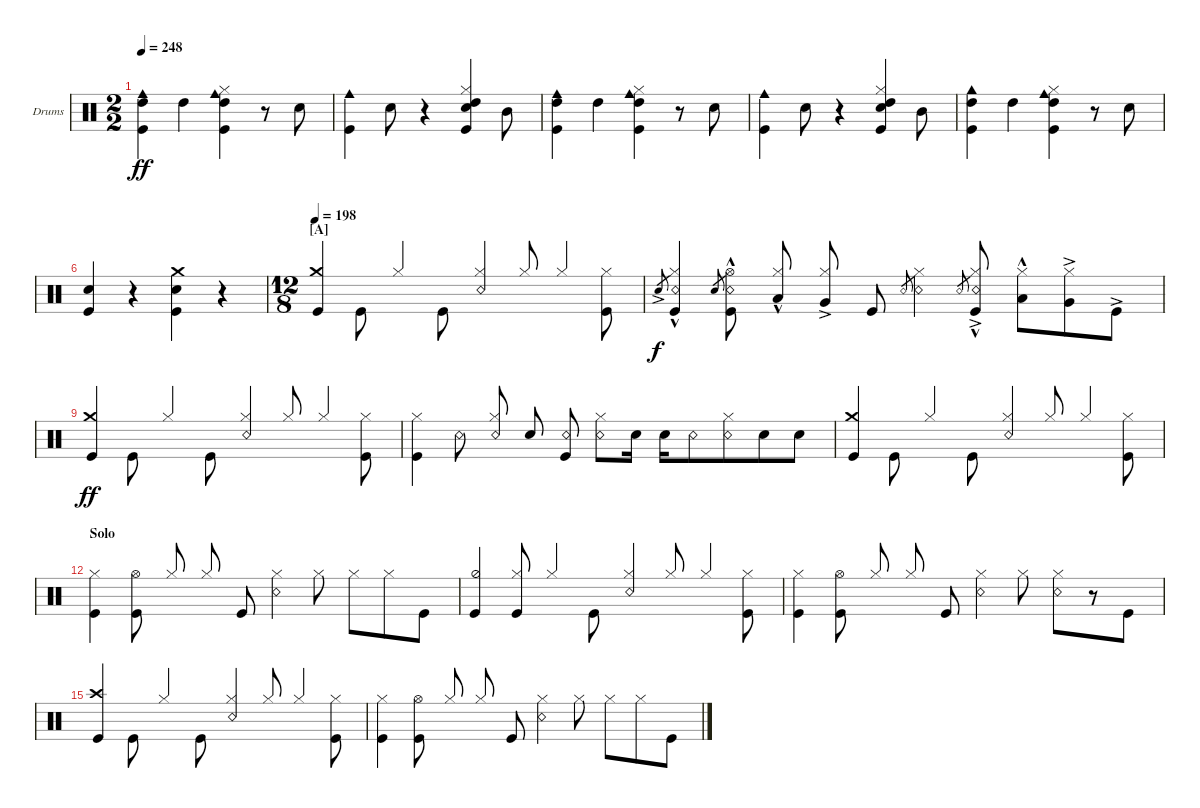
\bracketExtendMode nobrackets
\firstSystemTrackNameOrientation horizontal
\otherSystemsTrackNameOrientation horizontal
\defaultBarNumberDisplay FirstOfSystem
\track ("Drumkit" "Drums") {instrument percussion}
\staff {score}
\articulation defaults
\ts (2 2)
\tempo 248
\clef neutral
\ks c
("Cowbell medium (hit)" "Kick (hit)" "High Tom (hit)").4{dy ff} "High Tom (hit)".4 ("Kick (hit)" "High Tom (hit)" "Cowbell medium (hit)" "Hi-Hat (closed)").4 r.8 "Snare (hit) 2".8 |
("Kick (hit)" "Cowbell medium (hit)").4 "Snare (hit) 2".8 r.4 ("Kick (hit)" "Snare (hit) 2" "High Tom (hit)" "Hi-Hat (closed)").4 "Mid Tom (hit)".8 |
("Cowbell medium (hit)" "Kick (hit)" "High Tom (hit)").4 "High Tom (hit)".4 ("Kick (hit)" "High Tom (hit)" "Cowbell medium (hit)" "Hi-Hat (closed)").4 r.8 "Snare (hit) 2".8 |
("Kick (hit)" "Cowbell medium (hit)").4 "Snare (hit) 2".8 r.4 ("Kick (hit)" "Snare (hit) 2" "High Tom (hit)" "Hi-Hat (closed)").4 "Mid Tom (hit)".8 |
("Kick (hit)" "High Tom (hit)" "Cowbell high (hit)").4 "High Tom (hit)".4 ("Kick (hit)" "High Tom (hit)" "Hi-Hat (closed)" "Cowbell medium (hit)").4 r.8 "Snare (hit) 2".8 |
("Kick (hit)" "Snare (hit) 2").4 r.4 ("Kick (hit)" "Snare (hit) 2" "Crash medium (hit)").4 r.4 |
\ts (12 8)
\beaming (8 2 2 2 6)
\section ("A" "")
\tempo 198
("Kick (hit)" "Crash medium (hit)").4{beam invert} "Kick (hit)".8{beam invert} "Hi-Hat (closed)".4 "Kick (hit)".8{beam invert} ("Snare (rim shot)" "Hi-Hat (closed)").4 "Hi-Hat (closed)".8{beam invert} "Hi-Hat (closed)".4{beam invert} ("Kick (hit)" "Hi-Hat (closed)").8 |
"Snare (hit) 2"{ac}.8{gr dy f} ("Kick (hit)"{hac} "Hi-Hat (closed)" "Snare (rim shot)"{hac}).4 "Snare (hit) 2".8{gr} ("Kick (hit)" "Snare (rim shot)"{hac} "Hi-Hat (open)"{hac}).8{beam split} ("Hi-Hat (closed)" "Low Tom (hit)"{hac}).8 ("Hi-Hat (closed)" "Very Low Tom (hit)"{ac}).8{beam invert beam split} "Kick (hit)".8 "Snare (rim shot)".8{gr} ("Snare (rim shot)" "Hi-Hat (closed)").4 "Snare (rim shot)".8{gr} ("Hi-Hat (closed)" "Kick (hit)"{ac} "Snare (rim shot)"{hac}).8{beam split} ("Hi-Hat (closed)" "Low Tom (hit)"{hac}).8 ("Hi-Hat (closed)" "Very Low Tom (hit)"{ac}).8 "Kick (hit)"{ac}.8 |
("Kick (hit)" "Crash medium (hit)").4{dy ff beam invert} "Kick (hit)".8{beam invert} "Hi-Hat (closed)".4 "Kick (hit)".8{beam invert} ("Snare (rim shot)" "Hi-Hat (closed)").4 "Hi-Hat (closed)".8{beam invert} "Hi-Hat (closed)".4{beam invert} ("Kick (hit)" "Hi-Hat (closed)").8 |
("Kick (hit)" "Hi-Hat (closed)").4 "Snare (rim shot)".8{beam split} ("Hi-Hat (closed)" "Snare (rim shot)").8 "Snare (hit) 2".8{beam invert beam split} ("Kick (hit)" "Snare (rim shot)").8 ("Snare (rim shot)" "Hi-Hat (closed)").8 "Snare (hit) 2".16{beam split} "Snare (hit) 2".16 "Snare (rim shot)".8 ("Snare (rim shot)" "Hi-Hat (closed)").8 "Snare (hit) 2".8 "Snare (hit) 2".8 |
("Kick (hit)" "Crash medium (hit)").4{beam invert} "Kick (hit)".8{beam invert} "Hi-Hat (closed)".4 "Kick (hit)".8{beam invert} ("Snare (rim shot)" "Hi-Hat (closed)").4 "Hi-Hat (closed)".8{beam invert} "Hi-Hat (closed)".4{beam invert} ("Kick (hit)" "Hi-Hat (closed)").8 |
\section ("" "Solo")
("Kick (hit)" "Hi-Hat (closed)").4 ("Kick (hit)" "Hi-Hat (open)").8{beam split} "Hi-Hat (closed)".8 "Hi-Hat (closed)".8{beam invert beam split} "Kick (hit)".8 ("Snare (rim shot)" "Hi-Hat (closed)").4 "Hi-Hat (closed)".8{beam split} "Hi-Hat (closed)".8 "Hi-Hat (closed)".8 "Kick (hit)".8 |
("Kick (hit)" "Hi-Hat (half)").4{beam invert} ("Kick (hit)" "Hi-Hat (closed)").8{beam invert} "Hi-Hat (closed)".4 "Kick (hit)".8{beam invert} ("Snare (rim shot)" "Hi-Hat (closed)").4 "Hi-Hat (closed)".8{beam invert} "Hi-Hat (closed)".4{beam invert} ("Kick (hit)" "Hi-Hat (closed)").8 |
("Kick (hit)" "Hi-Hat (closed)").4 ("Kick (hit)" "Hi-Hat (open)").8{beam split} "Hi-Hat (closed)".8 "Hi-Hat (closed)".8{beam invert beam split} "Kick (hit)".8 ("Snare (rim shot)" "Hi-Hat (closed)").4 "Hi-Hat (closed)".8{beam split} ("Hi-Hat (closed)" "Snare (rim shot)").8 r.8 "Kick (hit)".8 |
("Kick (hit)" "Crash high (hit)").4{beam invert} "Kick (hit)".8{beam invert} "Hi-Hat (closed)".4 "Kick (hit)".8{beam invert} ("Snare (rim shot)" "Hi-Hat (closed)").4 "Hi-Hat (closed)".8{beam invert} "Hi-Hat (closed)".4{beam invert} ("Kick (hit)" "Hi-Hat (closed)").8 |
("Kick (hit)" "Hi-Hat (closed)").4 ("Kick (hit)" "Hi-Hat (open)").8{beam split} "Hi-Hat (closed)".8 "Hi-Hat (closed)".8{beam invert beam split} "Kick (hit)".8 ("Snare (rim shot)" "Hi-Hat (closed)").4 "Hi-Hat (closed)".8{beam split} "Hi-Hat (closed)".8 "Hi-Hat (closed)".8 "Kick (hit)".8
